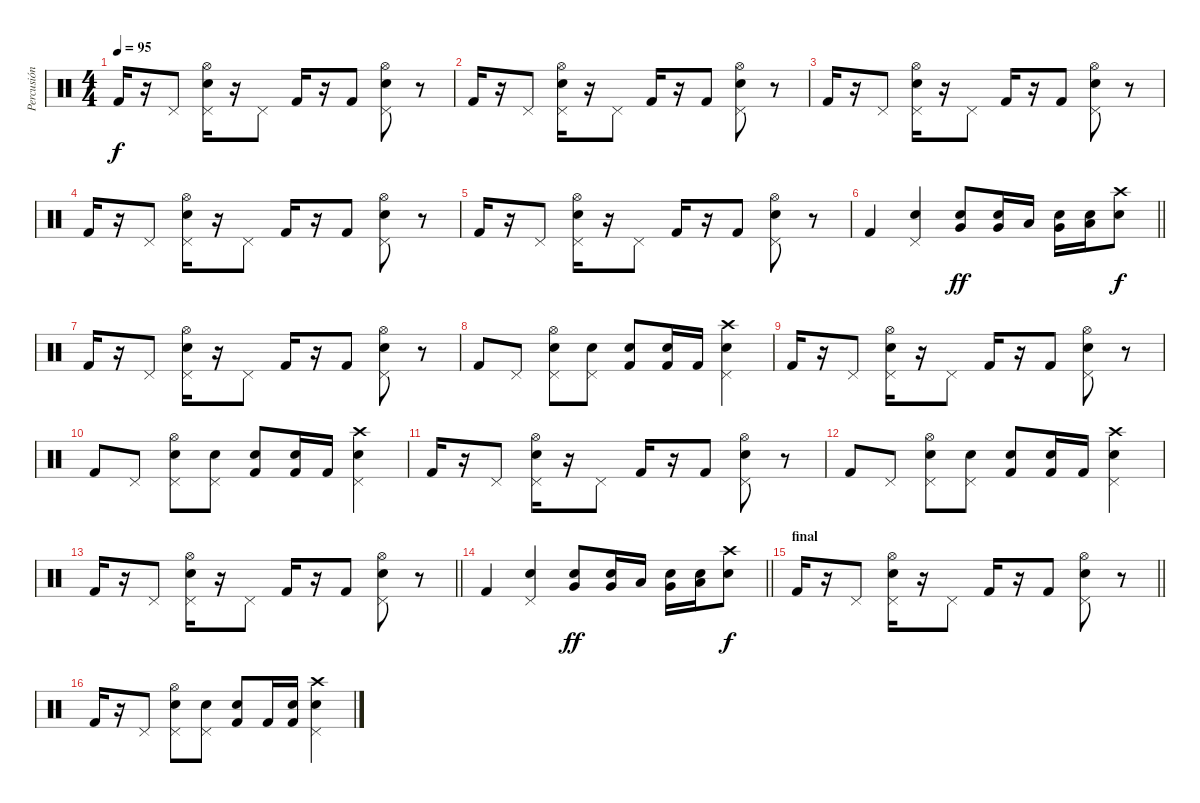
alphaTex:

\track ("Percusión" "Percusión") {instrument percussion}
\staff {score}
\articulation defaults
\ts (4 4)
\tempo 95
\clef neutral
\ks c "Kick (hit) 2".16{dy f}
r.16 "Pedal Hi-Hat (hit)".8 ("Snare (hit) 2" "Pedal Hi-Hat (hit)" "Hi-Hat (open)").16 r.16 "Pedal Hi-Hat (hit)".8 "Kick (hit) 2".16 r.16 "Kick (hit) 2".8 ("Snare (hit) 2" "Pedal Hi-Hat (hit)" "Hi-Hat (open)").8 r.8 |
"Kick (hit) 2".16 r.16 "Pedal Hi-Hat (hit)".8 ("Snare (hit) 2" "Pedal Hi-Hat (hit)" "Hi-Hat (open)").16 r.16 "Pedal Hi-Hat (hit)".8 "Kick (hit) 2".16 r.16 "Kick (hit) 2".8 ("Snare (hit) 2" "Pedal Hi-Hat (hit)" "Hi-Hat (open)").8 r.8 |
"Kick (hit) 2".16 r.16 "Pedal Hi-Hat (hit)".8 ("Snare (hit) 2" "Pedal Hi-Hat (hit)" "Hi-Hat (open)").16 r.16 "Pedal Hi-Hat (hit)".8 "Kick (hit) 2".16 r.16 "Kick (hit) 2".8 ("Snare (hit) 2" "Pedal Hi-Hat (hit)" "Hi-Hat (open)").8 r.8 |
"Kick (hit) 2".16 r.16 "Pedal Hi-Hat (hit)".8 ("Snare (hit) 2" "Pedal Hi-Hat (hit)" "Hi-Hat (open)").16 r.16 "Pedal Hi-Hat (hit)".8 "Kick (hit) 2".16 r.16 "Kick (hit) 2".8 ("Snare (hit) 2" "Pedal Hi-Hat (hit)" "Hi-Hat (open)").8 r.8 |
"Kick (hit) 2".16 r.16 "Pedal Hi-Hat (hit)".8 ("Snare (hit) 2" "Pedal Hi-Hat (hit)" "Hi-Hat (open)").16 r.16 "Pedal Hi-Hat (hit)".8 "Kick (hit) 2".16 r.16 "Kick (hit) 2".8 ("Snare (hit) 2" "Pedal Hi-Hat (hit)" "Hi-Hat (open)").8 r.8 |
\barLineRight lightlight "Kick (hit) 2".4
("Snare (hit) 2" "Pedal Hi-Hat (hit)").4 ("Very Low Tom (hit)" "Snare (hit) 2").8{dy ff} ("Very Low Tom (hit)" "Snare (hit) 2").16 "Low Tom (hit)".16 ("Very Low Tom (hit)" "Snare (hit) 2").16 ("Snare (hit) 2" "Low Floor Tom (hit)").16 ("Crash high (hit)" "Snare (hit) 2").8{dy f} |
\section ("" "")
"Kick (hit) 2".16 r.16 "Pedal Hi-Hat (hit)".8 ("Snare (hit) 2" "Pedal Hi-Hat (hit)" "Hi-Hat (open)").16 r.16 "Pedal Hi-Hat (hit)".8 "Kick (hit) 2".16 r.16 "Kick (hit) 2".8 ("Snare (hit) 2" "Pedal Hi-Hat (hit)" "Hi-Hat (open)").8 r.8 |
"Kick (hit) 2".8 "Pedal Hi-Hat (hit)".8 ("Snare (hit) 2" "Pedal Hi-Hat (hit)" "Hi-Hat (open)").8 ("Pedal Hi-Hat (hit)" "Snare (hit) 2").8 ("Kick (hit) 2" "Snare (hit) 2").8 ("Kick (hit) 2" "Snare (hit) 2").16 "Kick (hit) 2".16 ("Snare (hit) 2" "Pedal Hi-Hat (hit)" "Crash high (hit)").4 |
"Kick (hit) 2".16 r.16 "Pedal Hi-Hat (hit)".8 ("Snare (hit) 2" "Pedal Hi-Hat (hit)" "Hi-Hat (open)").16 r.16 "Pedal Hi-Hat (hit)".8 "Kick (hit) 2".16 r.16 "Kick (hit) 2".8 ("Snare (hit) 2" "Pedal Hi-Hat (hit)" "Hi-Hat (open)").8 r.8 |
"Kick (hit) 2".8 "Pedal Hi-Hat (hit)".8 ("Snare (hit) 2" "Pedal Hi-Hat (hit)" "Hi-Hat (open)").8 ("Pedal Hi-Hat (hit)" "Snare (hit) 2").8 ("Kick (hit) 2" "Snare (hit) 2").8 ("Kick (hit) 2" "Snare (hit) 2").16 "Kick (hit) 2".16 ("Snare (hit) 2" "Pedal Hi-Hat (hit)" "Crash high (hit)").4 |
"Kick (hit) 2".16 r.16 "Pedal Hi-Hat (hit)".8 ("Snare (hit) 2" "Pedal Hi-Hat (hit)" "Hi-Hat (open)").16 r.16 "Pedal Hi-Hat (hit)".8 "Kick (hit) 2".16 r.16 "Kick (hit) 2".8 ("Snare (hit) 2" "Pedal Hi-Hat (hit)" "Hi-Hat (open)").8 r.8 |
"Kick (hit) 2".8 "Pedal Hi-Hat (hit)".8 ("Snare (hit) 2" "Pedal Hi-Hat (hit)" "Hi-Hat (open)").8 ("Pedal Hi-Hat (hit)" "Snare (hit) 2").8 ("Kick (hit) 2" "Snare (hit) 2").8 ("Kick (hit) 2" "Snare (hit) 2").16 "Kick (hit) 2".16 ("Snare (hit) 2" "Pedal Hi-Hat (hit)" "Crash high (hit)").4 |
\barLineRight lightlight "Kick (hit) 2".16
r.16 "Pedal Hi-Hat (hit)".8 ("Snare (hit) 2" "Pedal Hi-Hat (hit)" "Hi-Hat (open)").16 r.16 "Pedal Hi-Hat (hit)".8 "Kick (hit) 2".16 r.16 "Kick (hit) 2".8 ("Snare (hit) 2" "Pedal Hi-Hat (hit)" "Hi-Hat (open)").8 r.8 |
\barLineRight lightlight "Kick (hit) 2".4
("Snare (hit) 2" "Pedal Hi-Hat (hit)").4 ("Very Low Tom (hit)" "Snare (hit) 2").8{dy ff} ("Very Low Tom (hit)" "Snare (hit) 2").16 "Low Tom (hit)".16 ("Very Low Tom (hit)" "Snare (hit) 2").16 ("Snare (hit) 2" "Low Floor Tom (hit)").16 ("Crash high (hit)" "Snare (hit) 2").8{dy f} |
\section ("" "final")
\barLineRight lightlight "Kick (hit) 2".16
r.16 "Pedal Hi-Hat (hit)".8 ("Snare (hit) 2" "Pedal Hi-Hat (hit)" "Hi-Hat (open)").16 r.16 "Pedal Hi-Hat (hit)".8 "Kick (hit) 2".16 r.16 "Kick (hit) 2".8 ("Snare (hit) 2" "Pedal Hi-Hat (hit)" "Hi-Hat (open)").8 r.8 |
"Kick (hit) 2".16 r.16 "Pedal Hi-Hat (hit)".8 ("Snare (hit) 2" "Pedal Hi-Hat (hit)" "Hi-Hat (open)").8 ("Pedal Hi-Hat (hit)" "Snare (hit) 2").8 ("Kick (hit) 2" "Snare (hit) 2").8 "Kick (hit) 2".16 ("Kick (hit) 2" "Snare (hit) 2").16 ("Snare (hit) 2" "Pedal Hi-Hat (hit)" "Crash high (hit)").4
